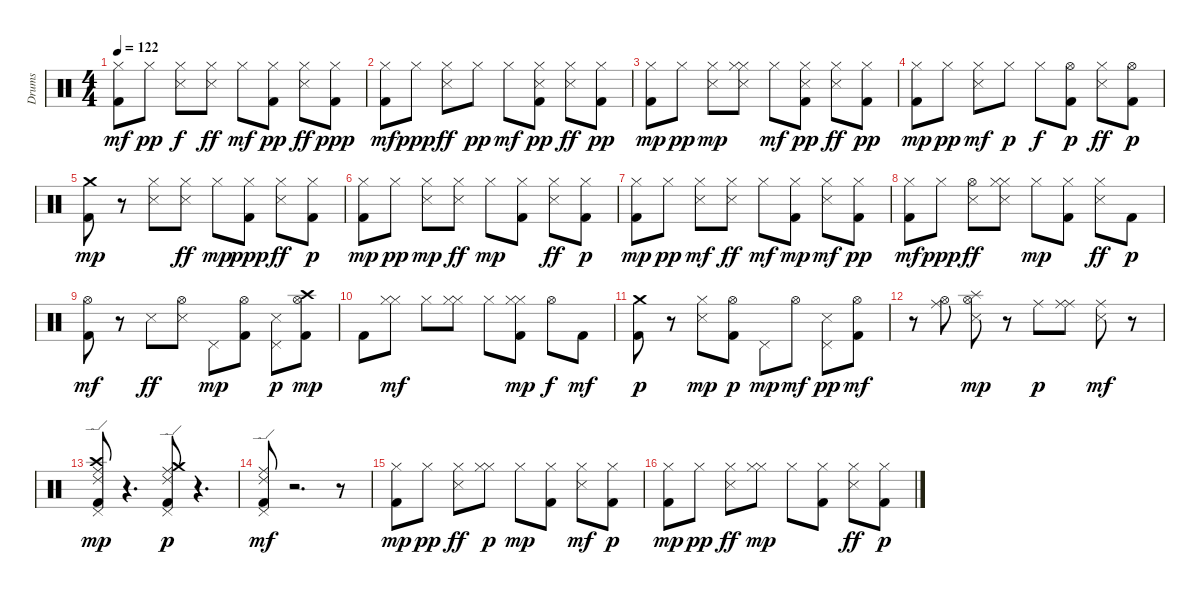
\track ("Drums    " "Drums    ") {instrument percussion}
\staff {score}
\articulation defaults
\ts (4 4)
\tempo 122
\clef neutral
\ks c
("Kick (hit) 2" "Hi-Hat (closed)").8{dy mf} "Hi-Hat (closed)".8{dy pp} ("Hi-Hat (closed)" "Snare (side stick) 3").8{dy f} ("Hi-Hat (closed)" "Snare (side stick) 3").8{dy ff} "Hi-Hat (closed)".8{dy mf} ("Kick (hit) 2" "Hi-Hat (closed)").8{dy pp} ("Hi-Hat (closed)" "Snare (side stick) 3").8{dy ff} ("Kick (hit) 2" "Hi-Hat (closed)").8{dy ppp} |
("Kick (hit) 2" "Hi-Hat (closed)").8{dy mf} "Hi-Hat (closed)".8{dy ppp} ("Snare (side stick) 3" "Hi-Hat (closed)").8{dy ff} "Hi-Hat (closed)".8{dy pp} "Hi-Hat (closed)".8{dy mf} ("Kick (hit) 2" "Hi-Hat (closed)" "Snare (side stick) 3").8{dy pp} ("Hi-Hat (closed)" "Snare (side stick) 3").8{dy ff} ("Kick (hit) 2" "Hi-Hat (closed)").8{dy pp} |
("Hi-Hat (closed)" "Kick (hit) 2").8{dy mp} "Hi-Hat (closed)".8{dy pp} ("Snare (side stick) 3" "Hi-Hat (closed)").8{dy mp} ("Hi-Hat (closed)" "Hi-Hat (closed)" "Snare (side stick) 3").8 "Hi-Hat (closed)".8{dy mf} ("Snare (side stick) 3" "Kick (hit) 2" "Hi-Hat (closed)").8{dy pp} ("Snare (side stick) 3" "Hi-Hat (closed)").8{dy ff} ("Kick (hit) 2" "Hi-Hat (closed)").8{dy pp} |
("Kick (hit) 2" "Hi-Hat (closed)").8{dy mp} "Hi-Hat (closed)".8{dy pp} ("Snare (side stick) 3" "Hi-Hat (closed)").8{dy mf} "Hi-Hat (closed)".8{dy p} "Hi-Hat (closed)".8{dy f} ("Kick (hit) 2" "Hi-Hat (open)").8{dy p} ("Snare (side stick) 3" "Hi-Hat (closed)").8{dy ff} ("Kick (hit) 2" "Hi-Hat (open)").8{dy p} |
("Crash medium (hit)" "Kick (hit) 2").8{dy mp} r.8 ("Snare (side stick) 3" "Hi-Hat (closed)").8 ("Hi-Hat (closed)" "Snare (side stick) 3").8{dy ff} "Hi-Hat (closed)".8{dy mp} ("Kick (hit) 2" "Hi-Hat (closed)").8{dy ppp} ("Hi-Hat (closed)" "Snare (side stick) 3").8{dy ff} ("Hi-Hat (closed)" "Kick (hit) 2").8{dy p} |
("Kick (hit) 2" "Hi-Hat (closed)").8{dy mp} "Hi-Hat (closed)".8{dy pp} ("Snare (side stick) 3" "Hi-Hat (closed)").8{dy mp} ("Hi-Hat (closed)" "Snare (side stick) 3").8{dy ff} "Hi-Hat (closed)".8{dy mp} ("Hi-Hat (closed)" "Kick (hit) 2").8 ("Hi-Hat (closed)" "Snare (side stick) 3").8{dy ff} ("Hi-Hat (closed)" "Kick (hit) 2").8{dy p} |
("Hi-Hat (closed)" "Kick (hit) 2").8{dy mp} "Hi-Hat (closed)".8{dy pp} ("Snare (side stick) 3" "Hi-Hat (closed)").8{dy mf} ("Hi-Hat (closed)" "Snare (side stick) 3").8{dy ff} "Hi-Hat (closed)".8{dy mf} ("Hi-Hat (closed)" "Kick (hit) 2").8{dy mp} ("Snare (side stick) 3" "Hi-Hat (closed)").8{dy mf} ("Kick (hit) 2" "Hi-Hat (closed)").8{dy pp} |
("Kick (hit) 2" "Hi-Hat (closed)").8{dy mf} "Hi-Hat (closed)".8{dy ppp} ("Snare (side stick) 3" "Hi-Hat (open)").8{dy ff} ("Hi-Hat (closed)" "Snare (side stick) 3" "Hi-Hat (closed)").8 "Hi-Hat (closed)".8{dy mp} ("Kick (hit) 2" "Hi-Hat (closed)").8 ("Snare (side stick) 3" "Hi-Hat (closed)").8{dy ff} "Kick (hit) 2".8{dy p} |
("Kick (hit) 2" "Hi-Hat (open)").8{dy mf} r.8 "Snare (side stick) 3".8{dy ff} ("Hi-Hat (open)" "Snare (side stick) 3").8 "Pedal Hi-Hat (hit)".8{dy mp} ("Kick (hit) 2" "Hi-Hat (open)").8 ("Snare (side stick) 3" "Pedal Hi-Hat (hit)").8{dy p} ("Kick (hit) 2" "Crash high (hit)" "Hi-Hat (open)").8{dy mp} |
"Kick (hit) 2".8 ("Hi-Hat (closed)" "Hi-Hat (closed)").8{dy mf} "Hi-Hat (closed)".8 ("Hi-Hat (closed)" "Hi-Hat (closed)").8 "Hi-Hat (closed)".8 ("Hi-Hat (closed)" "Kick (hit) 2" "Hi-Hat (closed)").8{dy mp} "Hi-Hat (open)".8{dy f} "Kick (hit) 2".8{dy mf} |
("Kick (hit) 2" "Crash medium (hit)").8{dy p} r.8 ("Hi-Hat (closed)" "Snare (side stick) 3").8{dy mp} ("Hi-Hat (open)" "Kick (hit) 2").8{dy p} "Pedal Hi-Hat (hit)".8{dy mp} "Hi-Hat (open)".8{dy mf} ("Snare (side stick) 3" "Pedal Hi-Hat (hit)").8{dy pp} ("Kick (hit) 2" "Hi-Hat (open)").8{dy mf} |
r.8 ("Hi-Hat (open)" "Ride (middle)").8 ("Snare (side stick) 3" "Hi-Hat (open)" "Splash (hit)").8{dy mp} r.8 "Ride (middle)".8{dy p} ("Ride (middle)" "Ride (middle)").8 ("Snare (side stick) 3" "Ride (middle)").8{dy mf} r.8 |
("Crash high (hit)" "Pedal Hi-Hat (hit)" "Ride (middle)" "Ride (edge) 2" "Kick (hit) 2").8{dy mp} r.4{d} ("Ride (middle)" "Crash medium (hit)" "Ride (edge) 2" "Pedal Hi-Hat (hit)" "Kick (hit) 2").8{dy p} r.4{d} |
("Pedal Hi-Hat (hit)" "Kick (hit) 2" "Ride (middle)" "Ride (edge) 2").8{dy mf} r.2{d} r.8 |
("Hi-Hat (closed)" "Kick (hit) 2").8{dy mp} "Hi-Hat (closed)".8{dy pp} ("Hi-Hat (closed)" "Snare (side stick) 3").8{dy ff} ("Hi-Hat (closed)" "Hi-Hat (closed)").8{dy p} "Hi-Hat (closed)".8{dy mp} ("Hi-Hat (closed)" "Kick (hit) 2").8 ("Snare (side stick) 3" "Hi-Hat (closed)").8{dy mf} ("Hi-Hat (closed)" "Kick (hit) 2").8{dy p} |
("Hi-Hat (closed)" "Kick (hit) 2").8{dy mp} "Hi-Hat (closed)".8{dy pp} ("Hi-Hat (closed)" "Snare (side stick) 3").8{dy ff} ("Hi-Hat (closed)" "Hi-Hat (closed)").8{dy mp} "Hi-Hat (closed)".8 ("Hi-Hat (closed)" "Kick (hit) 2").8 ("Hi-Hat (closed)" "Snare (side stick) 3").8{dy ff} ("Hi-Hat (closed)" "Kick (hit) 2").8{dy p}
